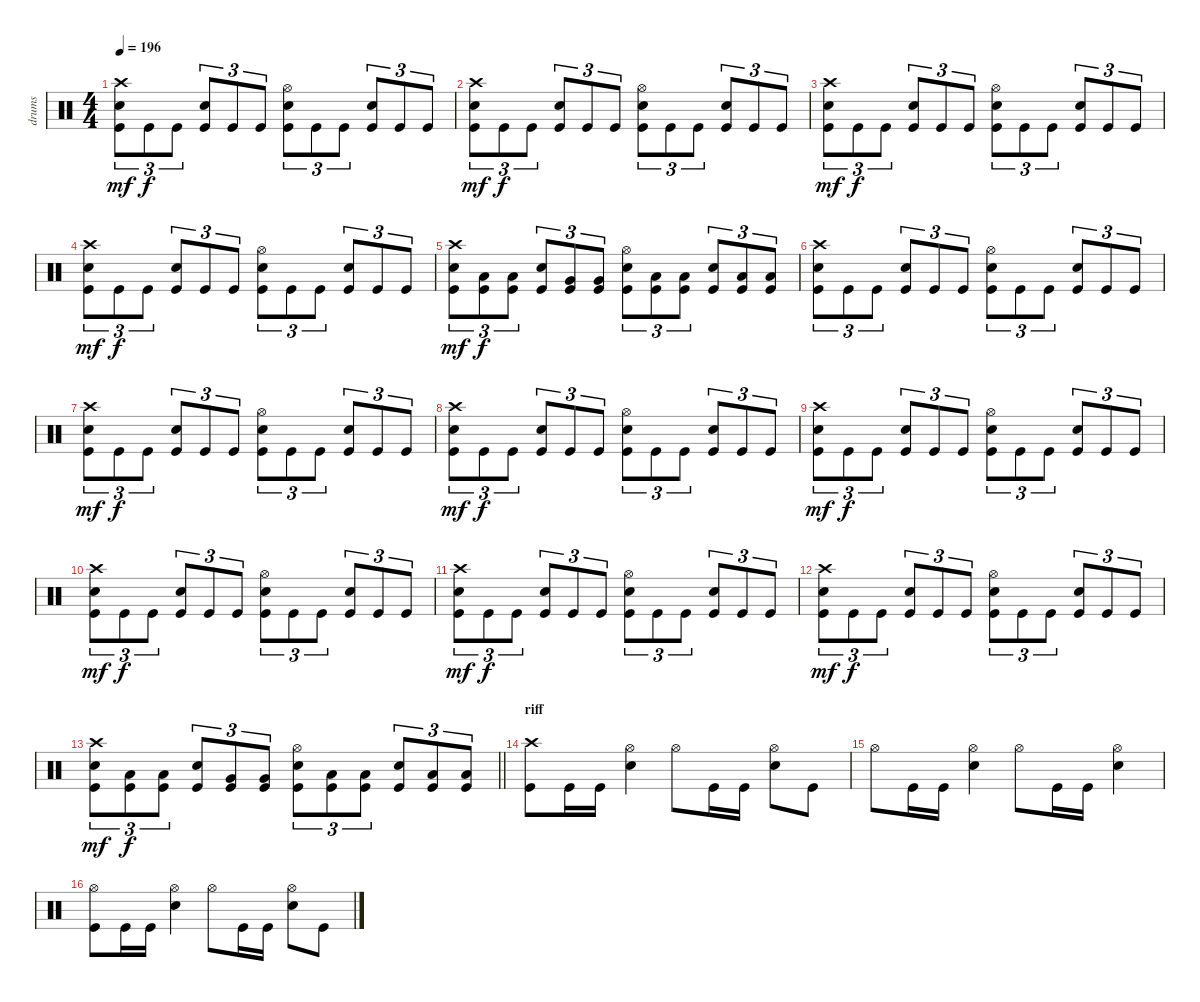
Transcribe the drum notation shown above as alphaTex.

\track ("drums" "drums") {instrument percussion}
\staff {score}
\articulation defaults
\ts (4 4)
\tempo 196
\clef neutral
\ks c
("Crash high (hit)" "Electric Snare (hit)" "Kick (hit)").8{tu (3 2) dy mf} "Kick (hit)".8{tu (3 2) dy f} "Kick (hit)".8{tu (3 2)} ("Electric Snare (hit)" "Kick (hit)").8{tu (3 2)} "Kick (hit)".8{tu (3 2)} "Kick (hit)".8{tu (3 2)} ("Hi-Hat (open)" "Electric Snare (hit)" "Kick (hit)").8{tu (3 2)} "Kick (hit)".8{tu (3 2)} "Kick (hit)".8{tu (3 2)} ("Electric Snare (hit)" "Kick (hit)").8{tu (3 2)} "Kick (hit)".8{tu (3 2)} "Kick (hit)".8{tu (3 2)} |
("Crash high (hit)" "Electric Snare (hit)" "Kick (hit)").8{tu (3 2) dy mf} "Kick (hit)".8{tu (3 2) dy f} "Kick (hit)".8{tu (3 2)} ("Electric Snare (hit)" "Kick (hit)").8{tu (3 2)} "Kick (hit)".8{tu (3 2)} "Kick (hit)".8{tu (3 2)} ("Hi-Hat (open)" "Electric Snare (hit)" "Kick (hit)").8{tu (3 2)} "Kick (hit)".8{tu (3 2)} "Kick (hit)".8{tu (3 2)} ("Electric Snare (hit)" "Kick (hit)").8{tu (3 2)} "Kick (hit)".8{tu (3 2)} "Kick (hit)".8{tu (3 2)} |
("Crash high (hit)" "Electric Snare (hit)" "Kick (hit)").8{tu (3 2) dy mf} "Kick (hit)".8{tu (3 2) dy f} "Kick (hit)".8{tu (3 2)} ("Electric Snare (hit)" "Kick (hit)").8{tu (3 2)} "Kick (hit)".8{tu (3 2)} "Kick (hit)".8{tu (3 2)} ("Hi-Hat (open)" "Electric Snare (hit)" "Kick (hit)").8{tu (3 2)} "Kick (hit)".8{tu (3 2)} "Kick (hit)".8{tu (3 2)} ("Electric Snare (hit)" "Kick (hit)").8{tu (3 2)} "Kick (hit)".8{tu (3 2)} "Kick (hit)".8{tu (3 2)} |
("Crash high (hit)" "Electric Snare (hit)" "Kick (hit)").8{tu (3 2) dy mf} "Kick (hit)".8{tu (3 2) dy f} "Kick (hit)".8{tu (3 2)} ("Electric Snare (hit)" "Kick (hit)").8{tu (3 2)} "Kick (hit)".8{tu (3 2)} "Kick (hit)".8{tu (3 2)} ("Hi-Hat (open)" "Electric Snare (hit)" "Kick (hit)").8{tu (3 2)} "Kick (hit)".8{tu (3 2)} "Kick (hit)".8{tu (3 2)} ("Electric Snare (hit)" "Kick (hit)").8{tu (3 2)} "Kick (hit)".8{tu (3 2)} "Kick (hit)".8{tu (3 2)} |
("Crash high (hit)" "Electric Snare (hit)" "Kick (hit)").8{tu (3 2) dy mf} ("Low Tom (hit)" "Kick (hit)").8{tu (3 2) dy f} ("Low Tom (hit)" "Kick (hit)").8{tu (3 2)} ("Electric Snare (hit)" "Kick (hit)").8{tu (3 2)} ("Very Low Tom (hit)" "Kick (hit)").8{tu (3 2)} ("Very Low Tom (hit)" "Kick (hit)").8{tu (3 2)} ("Hi-Hat (open)" "Electric Snare (hit)" "Kick (hit)").8{tu (3 2)} ("Low Floor Tom (hit)" "Kick (hit)").8{tu (3 2)} ("Low Floor Tom (hit)" "Kick (hit)").8{tu (3 2)} ("Electric Snare (hit)" "Kick (hit)").8{tu (3 2)} ("Low Floor Tom (hit)" "Kick (hit)").8{tu (3 2)} ("Low Floor Tom (hit)" "Kick (hit)").8{tu (3 2)} |
("Crash high (hit)" "Electric Snare (hit)" "Kick (hit)").8{tu (3 2)} "Kick (hit)".8{tu (3 2)} "Kick (hit)".8{tu (3 2)} ("Electric Snare (hit)" "Kick (hit)").8{tu (3 2)} "Kick (hit)".8{tu (3 2)} "Kick (hit)".8{tu (3 2)} ("Hi-Hat (open)" "Electric Snare (hit)" "Kick (hit)").8{tu (3 2)} "Kick (hit)".8{tu (3 2)} "Kick (hit)".8{tu (3 2)} ("Electric Snare (hit)" "Kick (hit)").8{tu (3 2)} "Kick (hit)".8{tu (3 2)} "Kick (hit)".8{tu (3 2)} |
("Crash high (hit)" "Electric Snare (hit)" "Kick (hit)").8{tu (3 2) dy mf} "Kick (hit)".8{tu (3 2) dy f} "Kick (hit)".8{tu (3 2)} ("Electric Snare (hit)" "Kick (hit)").8{tu (3 2)} "Kick (hit)".8{tu (3 2)} "Kick (hit)".8{tu (3 2)} ("Hi-Hat (open)" "Electric Snare (hit)" "Kick (hit)").8{tu (3 2)} "Kick (hit)".8{tu (3 2)} "Kick (hit)".8{tu (3 2)} ("Electric Snare (hit)" "Kick (hit)").8{tu (3 2)} "Kick (hit)".8{tu (3 2)} "Kick (hit)".8{tu (3 2)} |
("Crash high (hit)" "Electric Snare (hit)" "Kick (hit)").8{tu (3 2) dy mf} "Kick (hit)".8{tu (3 2) dy f} "Kick (hit)".8{tu (3 2)} ("Electric Snare (hit)" "Kick (hit)").8{tu (3 2)} "Kick (hit)".8{tu (3 2)} "Kick (hit)".8{tu (3 2)} ("Hi-Hat (open)" "Electric Snare (hit)" "Kick (hit)").8{tu (3 2)} "Kick (hit)".8{tu (3 2)} "Kick (hit)".8{tu (3 2)} ("Electric Snare (hit)" "Kick (hit)").8{tu (3 2)} "Kick (hit)".8{tu (3 2)} "Kick (hit)".8{tu (3 2)} |
("Crash high (hit)" "Electric Snare (hit)" "Kick (hit)").8{tu (3 2) dy mf} "Kick (hit)".8{tu (3 2) dy f} "Kick (hit)".8{tu (3 2)} ("Electric Snare (hit)" "Kick (hit)").8{tu (3 2)} "Kick (hit)".8{tu (3 2)} "Kick (hit)".8{tu (3 2)} ("Hi-Hat (open)" "Electric Snare (hit)" "Kick (hit)").8{tu (3 2)} "Kick (hit)".8{tu (3 2)} "Kick (hit)".8{tu (3 2)} ("Electric Snare (hit)" "Kick (hit)").8{tu (3 2)} "Kick (hit)".8{tu (3 2)} "Kick (hit)".8{tu (3 2)} |
("Crash high (hit)" "Electric Snare (hit)" "Kick (hit)").8{tu (3 2) dy mf} "Kick (hit)".8{tu (3 2) dy f} "Kick (hit)".8{tu (3 2)} ("Electric Snare (hit)" "Kick (hit)").8{tu (3 2)} "Kick (hit)".8{tu (3 2)} "Kick (hit)".8{tu (3 2)} ("Hi-Hat (open)" "Electric Snare (hit)" "Kick (hit)").8{tu (3 2)} "Kick (hit)".8{tu (3 2)} "Kick (hit)".8{tu (3 2)} ("Electric Snare (hit)" "Kick (hit)").8{tu (3 2)} "Kick (hit)".8{tu (3 2)} "Kick (hit)".8{tu (3 2)} |
("Crash high (hit)" "Electric Snare (hit)" "Kick (hit)").8{tu (3 2) dy mf} "Kick (hit)".8{tu (3 2) dy f} "Kick (hit)".8{tu (3 2)} ("Electric Snare (hit)" "Kick (hit)").8{tu (3 2)} "Kick (hit)".8{tu (3 2)} "Kick (hit)".8{tu (3 2)} ("Hi-Hat (open)" "Electric Snare (hit)" "Kick (hit)").8{tu (3 2)} "Kick (hit)".8{tu (3 2)} "Kick (hit)".8{tu (3 2)} ("Electric Snare (hit)" "Kick (hit)").8{tu (3 2)} "Kick (hit)".8{tu (3 2)} "Kick (hit)".8{tu (3 2)} |
("Crash high (hit)" "Electric Snare (hit)" "Kick (hit)").8{tu (3 2) dy mf} "Kick (hit)".8{tu (3 2) dy f} "Kick (hit)".8{tu (3 2)} ("Electric Snare (hit)" "Kick (hit)").8{tu (3 2)} "Kick (hit)".8{tu (3 2)} "Kick (hit)".8{tu (3 2)} ("Hi-Hat (open)" "Electric Snare (hit)" "Kick (hit)").8{tu (3 2)} "Kick (hit)".8{tu (3 2)} "Kick (hit)".8{tu (3 2)} ("Electric Snare (hit)" "Kick (hit)").8{tu (3 2)} "Kick (hit)".8{tu (3 2)} "Kick (hit)".8{tu (3 2)} |
\barLineRight lightlight
("Crash high (hit)" "Electric Snare (hit)" "Kick (hit)").8{tu (3 2) dy mf} ("Low Tom (hit)" "Kick (hit)").8{tu (3 2) dy f} ("Low Tom (hit)" "Kick (hit)").8{tu (3 2)} ("Electric Snare (hit)" "Kick (hit)").8{tu (3 2)} ("Very Low Tom (hit)" "Kick (hit)").8{tu (3 2)} ("Very Low Tom (hit)" "Kick (hit)").8{tu (3 2)} ("Hi-Hat (open)" "Electric Snare (hit)" "Kick (hit)").8{tu (3 2)} ("Low Floor Tom (hit)" "Kick (hit)").8{tu (3 2)} ("Low Floor Tom (hit)" "Kick (hit)").8{tu (3 2)} ("Electric Snare (hit)" "Kick (hit)").8{tu (3 2)} ("Low Floor Tom (hit)" "Kick (hit)").8{tu (3 2)} ("Low Floor Tom (hit)" "Kick (hit)").8{tu (3 2)} |
\section ("" "riff")
("Crash high (hit)" "Kick (hit)").8 "Kick (hit)".16 "Kick (hit)".16 ("Hi-Hat (open)" "Electric Snare (hit)").4 "Hi-Hat (open)".8 "Kick (hit)".16 "Kick (hit)".16 ("Hi-Hat (open)" "Electric Snare (hit)").8 "Kick (hit)".8 |
"Hi-Hat (open)".8 "Kick (hit)".16 "Kick (hit)".16 ("Hi-Hat (open)" "Electric Snare (hit)").4 "Hi-Hat (open)".8 "Kick (hit)".16 "Kick (hit)".16 ("Hi-Hat (open)" "Electric Snare (hit)").4 |
("Hi-Hat (open)" "Kick (hit)").8 "Kick (hit)".16 "Kick (hit)".16 ("Hi-Hat (open)" "Electric Snare (hit)").4 "Hi-Hat (open)".8 "Kick (hit)".16 "Kick (hit)".16 ("Hi-Hat (open)" "Electric Snare (hit)").8 "Kick (hit)".8
